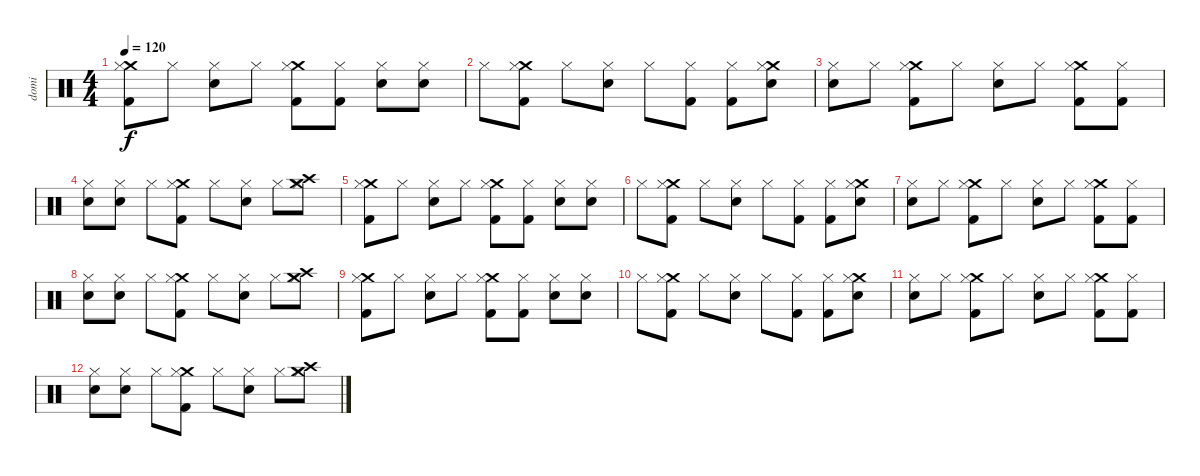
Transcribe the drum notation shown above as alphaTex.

\track ("domi" "domi") {instrument percussion}
\staff {score}
\articulation defaults
\ts (4 4)
\tempo 120
\clef neutral
\ks c
("Crash medium (hit)" "Kick (hit) 2" "Hi-Hat (closed)").8{dy f} "Hi-Hat (closed)".8 ("Electric Snare (hit)" "Hi-Hat (closed)").8 "Hi-Hat (closed)".8 ("Crash medium (hit)" "Kick (hit) 2" "Hi-Hat (closed)").8 ("Kick (hit) 2" "Hi-Hat (closed)").8 ("Snare (hit) 2" "Hi-Hat (closed)").8 ("Electric Snare (hit)" "Hi-Hat (closed)").8 |
"Hi-Hat (closed)".8 ("Crash medium (hit)" "Kick (hit) 2" "Hi-Hat (closed)").8 "Hi-Hat (closed)".8 ("Electric Snare (hit)" "Hi-Hat (closed)").8 "Hi-Hat (closed)".8 ("Kick (hit) 2" "Hi-Hat (closed)").8 ("Kick (hit) 2" "Hi-Hat (closed)").8 ("Crash medium (hit)" "Snare (hit) 2" "Hi-Hat (closed)").8 |
("Electric Snare (hit)" "Hi-Hat (closed)").8 "Hi-Hat (closed)".8 ("Crash medium (hit)" "Kick (hit) 2" "Hi-Hat (closed)").8 "Hi-Hat (closed)".8 ("Electric Snare (hit)" "Hi-Hat (closed)").8 "Hi-Hat (closed)".8 ("Crash medium (hit)" "Kick (hit) 2" "Hi-Hat (closed)").8 ("Kick (hit) 2" "Hi-Hat (closed)").8 |
("Snare (hit) 2" "Hi-Hat (closed)").8 ("Electric Snare (hit)" "Hi-Hat (closed)").8 "Hi-Hat (closed)".8 ("Crash medium (hit)" "Kick (hit) 2" "Hi-Hat (closed)").8 "Hi-Hat (closed)".8 ("Electric Snare (hit)" "Hi-Hat (closed)").8 "Hi-Hat (closed)".8 ("Crash medium (hit)" "Crash high (hit)" "Hi-Hat (closed)").8 |
("Crash medium (hit)" "Kick (hit) 2" "Hi-Hat (closed)").8 "Hi-Hat (closed)".8 ("Electric Snare (hit)" "Hi-Hat (closed)").8 "Hi-Hat (closed)".8 ("Crash medium (hit)" "Kick (hit) 2" "Hi-Hat (closed)").8 ("Kick (hit) 2" "Hi-Hat (closed)").8 ("Snare (hit) 2" "Hi-Hat (closed)").8 ("Electric Snare (hit)" "Hi-Hat (closed)").8 |
"Hi-Hat (closed)".8 ("Crash medium (hit)" "Kick (hit) 2" "Hi-Hat (closed)").8 "Hi-Hat (closed)".8 ("Electric Snare (hit)" "Hi-Hat (closed)").8 "Hi-Hat (closed)".8 ("Kick (hit) 2" "Hi-Hat (closed)").8 ("Kick (hit) 2" "Hi-Hat (closed)").8 ("Crash medium (hit)" "Snare (hit) 2" "Hi-Hat (closed)").8 |
("Electric Snare (hit)" "Hi-Hat (closed)").8 "Hi-Hat (closed)".8 ("Crash medium (hit)" "Kick (hit) 2" "Hi-Hat (closed)").8 "Hi-Hat (closed)".8 ("Electric Snare (hit)" "Hi-Hat (closed)").8 "Hi-Hat (closed)".8 ("Crash medium (hit)" "Kick (hit) 2" "Hi-Hat (closed)").8 ("Kick (hit) 2" "Hi-Hat (closed)").8 |
("Snare (hit) 2" "Hi-Hat (closed)").8 ("Electric Snare (hit)" "Hi-Hat (closed)").8 "Hi-Hat (closed)".8 ("Crash medium (hit)" "Kick (hit) 2" "Hi-Hat (closed)").8 "Hi-Hat (closed)".8 ("Electric Snare (hit)" "Hi-Hat (closed)").8 "Hi-Hat (closed)".8 ("Crash medium (hit)" "Crash high (hit)" "Hi-Hat (closed)").8 |
("Crash medium (hit)" "Kick (hit) 2" "Hi-Hat (closed)").8 "Hi-Hat (closed)".8 ("Electric Snare (hit)" "Hi-Hat (closed)").8 "Hi-Hat (closed)".8 ("Crash medium (hit)" "Kick (hit) 2" "Hi-Hat (closed)").8 ("Kick (hit) 2" "Hi-Hat (closed)").8 ("Snare (hit) 2" "Hi-Hat (closed)").8 ("Electric Snare (hit)" "Hi-Hat (closed)").8 |
"Hi-Hat (closed)".8 ("Crash medium (hit)" "Kick (hit) 2" "Hi-Hat (closed)").8 "Hi-Hat (closed)".8 ("Electric Snare (hit)" "Hi-Hat (closed)").8 "Hi-Hat (closed)".8 ("Kick (hit) 2" "Hi-Hat (closed)").8 ("Kick (hit) 2" "Hi-Hat (closed)").8 ("Crash medium (hit)" "Snare (hit) 2" "Hi-Hat (closed)").8 |
("Electric Snare (hit)" "Hi-Hat (closed)").8 "Hi-Hat (closed)".8 ("Crash medium (hit)" "Kick (hit) 2" "Hi-Hat (closed)").8 "Hi-Hat (closed)".8 ("Electric Snare (hit)" "Hi-Hat (closed)").8 "Hi-Hat (closed)".8 ("Crash medium (hit)" "Kick (hit) 2" "Hi-Hat (closed)").8 ("Kick (hit) 2" "Hi-Hat (closed)").8 |
("Snare (hit) 2" "Hi-Hat (closed)").8 ("Electric Snare (hit)" "Hi-Hat (closed)").8 "Hi-Hat (closed)".8 ("Crash medium (hit)" "Kick (hit) 2" "Hi-Hat (closed)").8 "Hi-Hat (closed)".8 ("Electric Snare (hit)" "Hi-Hat (closed)").8 "Hi-Hat (closed)".8 ("Crash medium (hit)" "Crash high (hit)" "Hi-Hat (closed)").8
